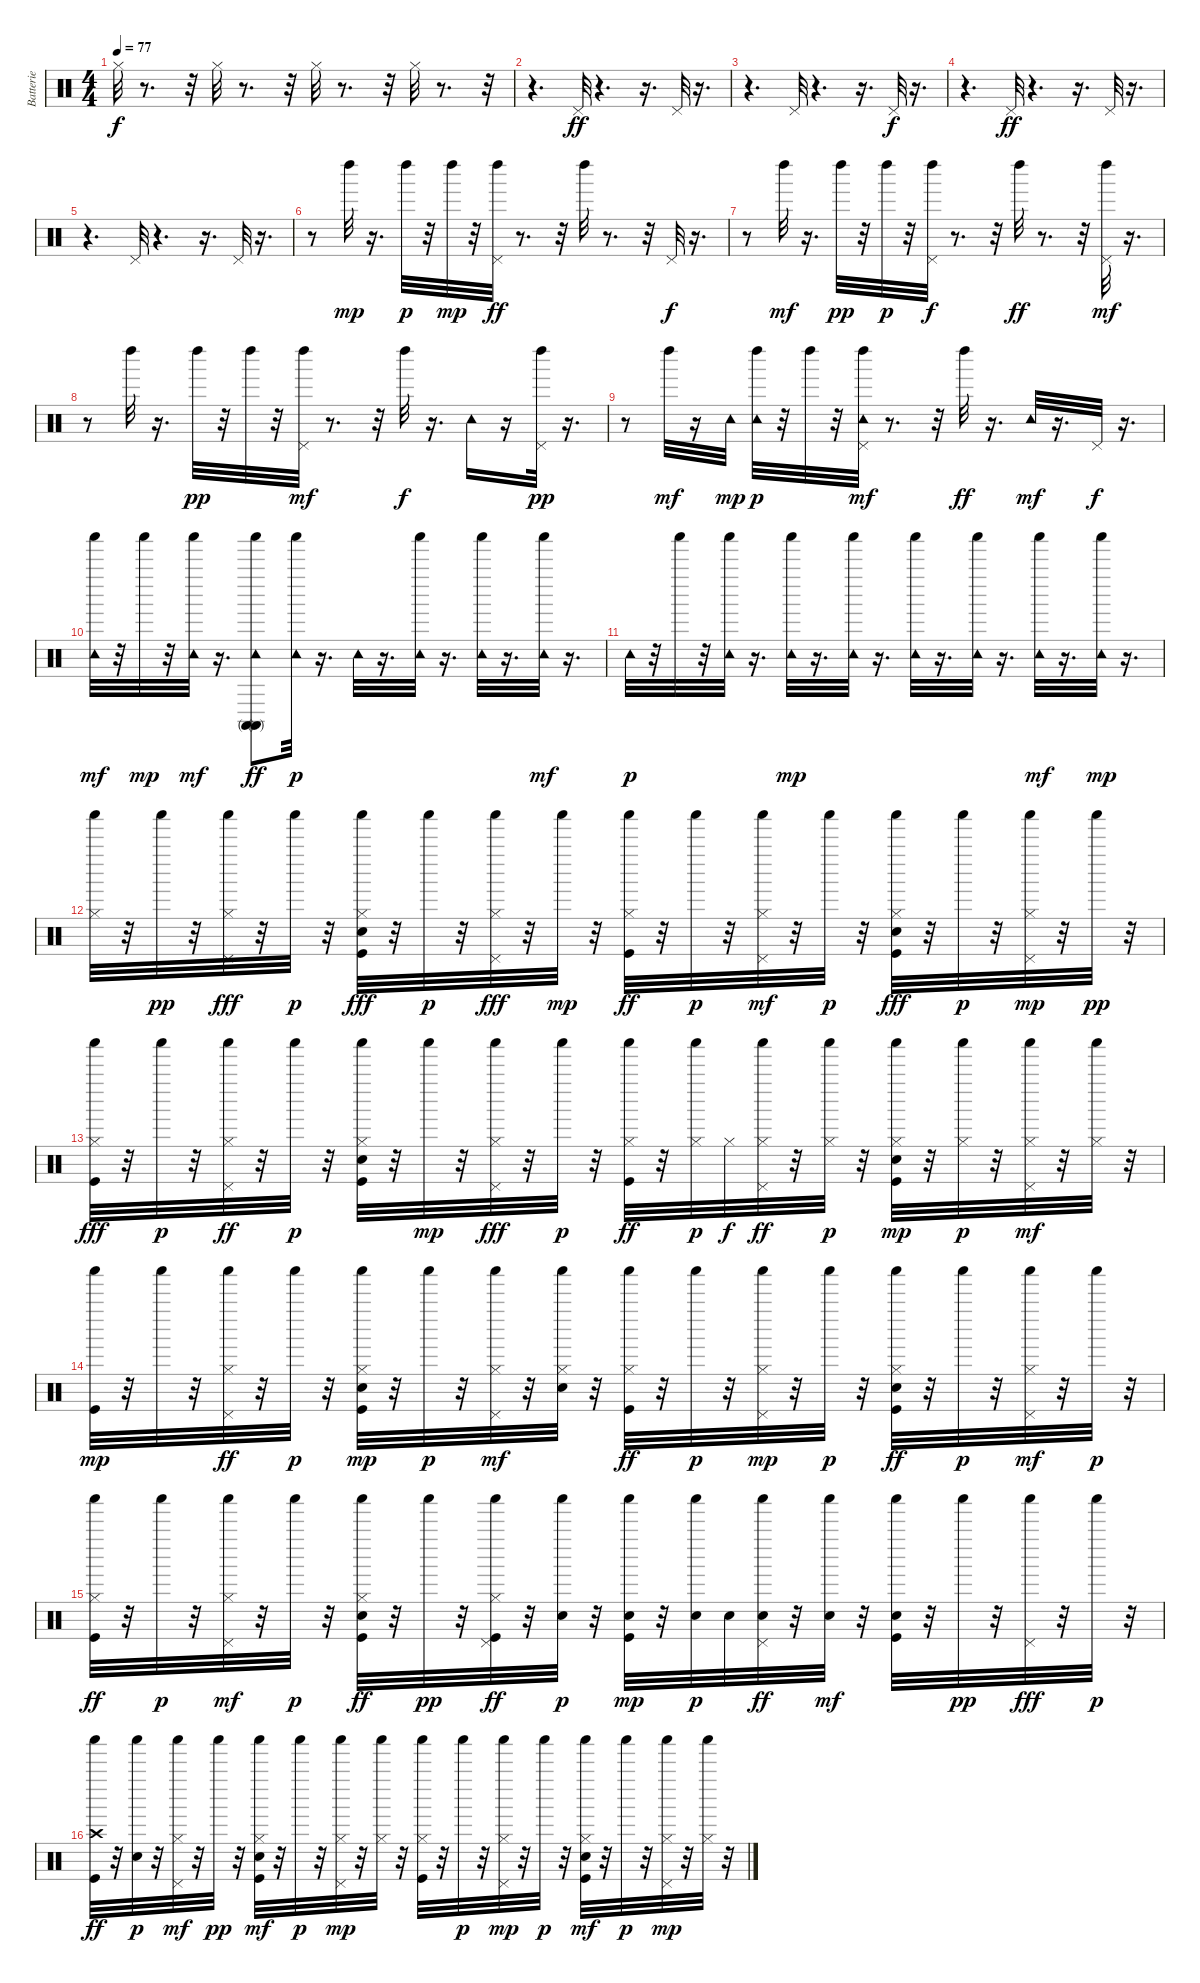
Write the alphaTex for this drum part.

\track ("Batterie" "Batterie") {instrument percussion}
\staff {score}
\articulation defaults
\ts (4 4)
\tempo 77
\tempo 78
\tempo 77
\clef neutral
\ks c "Hi-Hat (closed)".32{dy f}
r.8{d} r.32 "Hi-Hat (closed)".32 r.8{d} r.32 "Hi-Hat (closed)".32 r.8{d} r.32 "Hi-Hat (closed)".32 r.8{d} r.32 |
r.4{d} "Pedal Hi-Hat (hit)".32{dy ff} r.4{d} r.16{d} "Pedal Hi-Hat (hit)".32 r.16{d} |
r.4{d} "Pedal Hi-Hat (hit)".32 r.4{d} r.16{d} "Pedal Hi-Hat (hit)".32{dy f} r.16{d} |
r.4{d} "Pedal Hi-Hat (hit)".32{dy ff} r.4{d} r.16{d} "Pedal Hi-Hat (hit)".32 r.16{d} |
r.4{d} "Pedal Hi-Hat (hit)".32 r.4{d} r.16{d} "Pedal Hi-Hat (hit)".32 r.16{d} |
r.8 "Left Maraca (hit)".32{dy mp} r.16{d} "Left Maraca (hit)".32{dy p} r.32 "Left Maraca (hit)".32{dy mp} r.32 ("Pedal Hi-Hat (hit)" "Left Maraca (hit)").32{dy ff} r.8{d} r.32 "Left Maraca (hit)".32 r.8{d} r.32 "Pedal Hi-Hat (hit)".32{dy f} r.16{d} |
r.8 "Left Maraca (hit)".32{dy mf} r.16{d} "Left Maraca (hit)".32{dy pp} r.32 "Left Maraca (hit)".32{dy p} r.32 ("Left Maraca (hit)" "Pedal Hi-Hat (hit)").32{dy f} r.8{d} r.32 "Left Maraca (hit)".32{dy ff} r.8{d} r.32 ("Left Maraca (hit)" "Pedal Hi-Hat (hit)").32{dy mf} r.16{d} |
r.8 "Left Maraca (hit)".32 r.16{d} "Left Maraca (hit)".32{dy pp} r.32 "Left Maraca (hit)".32 r.32 ("Left Maraca (hit)" "Pedal Hi-Hat (hit)").32{dy mf} r.8{d} r.32 "Left Maraca (hit)".32{dy f} r.16{d} "Tambourine (hit)".16 r.16 ("Pedal Hi-Hat (hit)" "Left Maraca (hit)").32{dy pp} r.16{d} |
r.8 "Left Maraca (hit)".32{dy mf} r.16 "Tambourine (hit)".32{dy mp} ("Tambourine (hit)" "Left Maraca (hit)").32{dy p} r.32 "Left Maraca (hit)".32 r.32 ("Pedal Hi-Hat (hit)" "Tambourine (hit)" "Left Maraca (hit)").32{dy mf} r.8{d} r.32 "Left Maraca (hit)".32{dy ff} r.16{d} "Tambourine (hit)".32{dy mf} r.16{d} "Pedal Hi-Hat (hit)".32{dy f} r.16{d} |
("Tambourine (hit)" "Shaker (hit)").32{dy mf} r.32 "Shaker (hit)".32{dy mp} r.32 ("Tambourine (hit)" "Shaker (hit)").32{dy mf} r.16{d} ("Conga high (mute)" "Shaker (hit)" "Tambourine (hit)" "Conga high (mute)").8{dy ff} ("Shaker (hit)" "Tambourine (hit)").32{dy p} r.16{d} "Tambourine (hit)".32 r.16{d} ("Shaker (hit)" "Tambourine (hit)").32 r.16{d} ("Tambourine (hit)" "Shaker (hit)").32 r.16{d} ("Tambourine (hit)" "Shaker (hit)").32{dy mf} r.16{d} |
"Tambourine (hit)".32{dy p} r.32 "Shaker (hit)".32 r.32 ("Shaker (hit)" "Tambourine (hit)").32 r.16{d} ("Shaker (hit)" "Tambourine (hit)").32{dy mp} r.16{d} ("Tambourine (hit)" "Shaker (hit)").32 r.16{d} ("Tambourine (hit)" "Shaker (hit)").32 r.16{d} ("Tambourine (hit)" "Shaker (hit)").32 r.16{d} ("Tambourine (hit)" "Shaker (hit)").32{dy mf} r.16{d} ("Tambourine (hit)" "Shaker (hit)").32{dy mp} r.16{d} |
("Hi-Hat (closed)" "Shaker (hit)").32 r.32 "Shaker (hit)".32{dy pp} r.32 ("Pedal Hi-Hat (hit)" "Hi-Hat (closed)" "Shaker (hit)").32{dy fff} r.32 "Shaker (hit)".32{dy p} r.32 ("Kick (hit)" "Shaker (hit)" "Electric Snare (hit)" "Hi-Hat (closed)").32{dy fff} r.32 "Shaker (hit)".32{dy p} r.32 ("Pedal Hi-Hat (hit)" "Shaker (hit)" "Hi-Hat (closed)").32{dy fff} r.32 "Shaker (hit)".32{dy mp} r.32 ("Shaker (hit)" "Kick (hit)" "Hi-Hat (closed)").32{dy ff} r.32 "Shaker (hit)".32{dy p} r.32 ("Pedal Hi-Hat (hit)" "Shaker (hit)" "Hi-Hat (closed)").32{dy mf} r.32 "Shaker (hit)".32{dy p} r.32 ("Electric Snare (hit)" "Shaker (hit)" "Kick (hit)" "Hi-Hat (closed)").32{dy fff} r.32 "Shaker (hit)".32{dy p} r.32 ("Pedal Hi-Hat (hit)" "Shaker (hit)" "Hi-Hat (closed)").32{dy mp} r.32 "Shaker (hit)".32{dy pp} r.32 |
("Kick (hit)" "Shaker (hit)" "Hi-Hat (closed)").32{dy fff} r.32 "Shaker (hit)".32{dy p} r.32 ("Pedal Hi-Hat (hit)" "Hi-Hat (closed)" "Shaker (hit)").32{dy ff} r.32 "Shaker (hit)".32{dy p} r.32 ("Hi-Hat (closed)" "Electric Snare (hit)" "Kick (hit)" "Shaker (hit)").32 r.32 "Shaker (hit)".32{dy mp} r.32 ("Hi-Hat (closed)" "Pedal Hi-Hat (hit)" "Shaker (hit)").32{dy fff} r.32 "Shaker (hit)".32{dy p} r.32 ("Shaker (hit)" "Kick (hit)" "Hi-Hat (closed)").32{dy ff} r.32 ("Shaker (hit)" "Hi-Hat (closed)").32{dy p} "Hi-Hat (closed)".32{dy f} ("Shaker (hit)" "Pedal Hi-Hat (hit)" "Hi-Hat (closed)").32{dy ff} r.32 ("Shaker (hit)" "Hi-Hat (closed)").32{dy p} r.32 ("Electric Snare (hit)" "Shaker (hit)" "Kick (hit)" "Hi-Hat (closed)").32{dy mp} r.32 ("Hi-Hat (closed)" "Shaker (hit)").32{dy p} r.32 ("Pedal Hi-Hat (hit)" "Shaker (hit)" "Hi-Hat (closed)").32{dy mf} r.32 ("Shaker (hit)" "Hi-Hat (closed)").32 r.32 |
("Shaker (hit)" "Kick (hit)").32{dy mp} r.32 "Shaker (hit)".32 r.32 ("Shaker (hit)" "Pedal Hi-Hat (hit)" "Hi-Hat (closed)").32{dy ff} r.32 "Shaker (hit)".32{dy p} r.32 ("Shaker (hit)" "Electric Snare (hit)" "Hi-Hat (closed)" "Kick (hit)").32{dy mp} r.32 "Shaker (hit)".32{dy p} r.32 ("Pedal Hi-Hat (hit)" "Shaker (hit)" "Hi-Hat (closed)").32{dy mf} r.32 ("Shaker (hit)" "Electric Snare (hit)" "Hi-Hat (closed)").32 r.32 ("Shaker (hit)" "Kick (hit)" "Hi-Hat (closed)").32{dy ff} r.32 "Shaker (hit)".32{dy p} r.32 ("Pedal Hi-Hat (hit)" "Shaker (hit)" "Hi-Hat (closed)").32{dy mp} r.32 "Shaker (hit)".32{dy p} r.32 ("Kick (hit)" "Electric Snare (hit)" "Shaker (hit)" "Hi-Hat (closed)").32{dy ff} r.32 "Shaker (hit)".32{dy p} r.32 ("Pedal Hi-Hat (hit)" "Shaker (hit)" "Hi-Hat (closed)").32{dy mf} r.32 "Shaker (hit)".32{dy p} r.32 |
("Shaker (hit)" "Kick (hit)" "Hi-Hat (closed)").32{dy ff} r.32 "Shaker (hit)".32{dy p} r.32 ("Pedal Hi-Hat (hit)" "Shaker (hit)" "Hi-Hat (closed)").32{dy mf} r.32 "Shaker (hit)".32{dy p} r.32 ("Electric Snare (hit)" "Shaker (hit)" "Kick (hit)" "Hi-Hat (closed)").32{dy ff} r.32 "Shaker (hit)".32{dy pp} r.32 ("Kick (hit)" "Pedal Hi-Hat (hit)" "Shaker (hit)" "Hi-Hat (closed)").32{dy ff} r.32 ("Electric Snare (hit)" "Shaker (hit)").32{dy p} r.32 ("Electric Snare (hit)" "Shaker (hit)" "Kick (hit)").32{dy mp} r.32 ("Shaker (hit)" "Electric Snare (hit)").32{dy p} "Electric Snare (hit)".32 ("Electric Snare (hit)" "Pedal Hi-Hat (hit)" "Shaker (hit)").32{dy ff} r.32 ("Shaker (hit)" "Electric Snare (hit)").32{dy mf} r.32 ("Shaker (hit)" "Kick (hit)" "Electric Snare (hit)").32 r.32 "Shaker (hit)".32{dy pp} r.32 ("Pedal Hi-Hat (hit)" "Shaker (hit)").32{dy fff} r.32 "Shaker (hit)".32{dy p} r.32 |
("Kick (hit)" "Shaker (hit)" "Crash high (hit)").32{dy ff} r.32 ("Shaker (hit)" "Electric Snare (hit)").32{dy p} r.32 ("Pedal Hi-Hat (hit)" "Shaker (hit)" "Hi-Hat (closed)").32{dy mf} r.32 "Shaker (hit)".32{dy pp} r.32 ("Kick (hit)" "Shaker (hit)" "Hi-Hat (closed)" "Electric Snare (hit)").32{dy mf} r.32 "Shaker (hit)".32{dy p} r.32 ("Pedal Hi-Hat (hit)" "Shaker (hit)" "Hi-Hat (closed)").32{dy mp} r.32 ("Shaker (hit)" "Hi-Hat (closed)").32 r.32 ("Shaker (hit)" "Kick (hit)" "Hi-Hat (closed)").32 r.32 "Shaker (hit)".32{dy p} r.32 ("Pedal Hi-Hat (hit)" "Shaker (hit)" "Hi-Hat (closed)").32{dy mp} r.32 "Shaker (hit)".32{dy p} r.32 ("Hi-Hat (closed)" "Shaker (hit)" "Kick (hit)" "Electric Snare (hit)").32{dy mf} r.32 "Shaker (hit)".32{dy p} r.32 ("Pedal Hi-Hat (hit)" "Shaker (hit)" "Hi-Hat (closed)").32{dy mp} r.32 ("Shaker (hit)" "Hi-Hat (closed)").32 r.32
